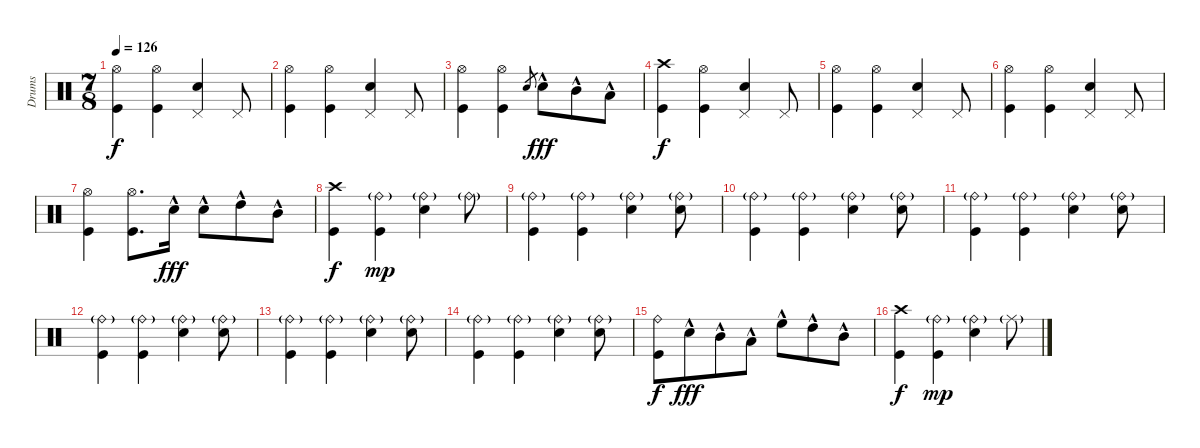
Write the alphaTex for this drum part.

\track ("Drums" "Drums") {instrument percussion}
\staff {score}
\articulation defaults
\ts (7 8)
\tempo 126
\clef neutral
\ks c
("Hi-Hat (open)" "Kick (hit)").4{dy f} ("Hi-Hat (open)" "Kick (hit)").4 ("Pedal Hi-Hat (hit)" "Snare (hit) 2").4 "Pedal Hi-Hat (hit)".8 |
("Hi-Hat (open)" "Kick (hit)").4 ("Hi-Hat (open)" "Kick (hit)").4 ("Pedal Hi-Hat (hit)" "Snare (hit) 2").4 "Pedal Hi-Hat (hit)".8 |
("Hi-Hat (open)" "Kick (hit)").4 ("Hi-Hat (open)" "Kick (hit)").4 "Snare (hit) 2".8{gr} "Snare (hit) 2"{hac}.8{dy fff} "Mid Tom (hit)"{hac}.8 "Low Tom (hit)"{hac}.8 |
("Crash high (hit)" "Kick (hit)").4{dy f} ("Hi-Hat (open)" "Kick (hit)").4 ("Pedal Hi-Hat (hit)" "Snare (hit) 2").4 "Pedal Hi-Hat (hit)".8 |
("Hi-Hat (open)" "Kick (hit)").4 ("Hi-Hat (open)" "Kick (hit)").4 ("Pedal Hi-Hat (hit)" "Snare (hit) 2").4 "Pedal Hi-Hat (hit)".8 |
("Hi-Hat (open)" "Kick (hit)").4 ("Hi-Hat (open)" "Kick (hit)").4 ("Pedal Hi-Hat (hit)" "Snare (hit) 2").4 "Pedal Hi-Hat (hit)".8 |
("Hi-Hat (open)" "Kick (hit)").4 ("Hi-Hat (open)" "Kick (hit)").8{d} "Snare (hit) 2"{hac}.16{dy fff} "Snare (hit) 2"{hac}.8 "High Tom (hit)"{hac}.8 "Mid Tom (hit)"{hac}.8 |
("Crash high (hit)" "Kick (hit)").4{dy f} ("Ride (bell)"{g} "Kick (hit)").4{dy mp} ("Ride (bell)"{g} "Snare (hit) 2").4 "Ride (bell)"{g}.8 |
("Ride (bell)"{g} "Kick (hit)").4 ("Ride (bell)"{g} "Kick (hit)").4 ("Ride (bell)"{g} "Snare (hit) 2").4 ("Ride (bell)"{g} "Snare (hit) 2").8 |
("Ride (bell)"{g} "Kick (hit)").4 ("Ride (bell)"{g} "Kick (hit)").4 ("Ride (bell)"{g} "Snare (hit) 2").4 ("Ride (bell)"{g} "Snare (hit) 2").8 |
("Ride (bell)"{g} "Kick (hit)").4 ("Ride (bell)"{g} "Kick (hit)").4 ("Ride (bell)"{g} "Snare (hit) 2").4 ("Ride (bell)"{g} "Snare (hit) 2").8 |
("Ride (bell)"{g} "Kick (hit)").4 ("Ride (bell)"{g} "Kick (hit)").4 ("Ride (bell)"{g} "Snare (hit) 2").4 ("Ride (bell)"{g} "Snare (hit) 2").8 |
("Ride (bell)"{g} "Kick (hit)").4 ("Ride (bell)"{g} "Kick (hit)").4 ("Ride (bell)"{g} "Snare (hit) 2").4 ("Ride (bell)"{g} "Snare (hit) 2").8 |
("Ride (bell)"{g} "Kick (hit)").4 ("Ride (bell)"{g} "Kick (hit)").4 ("Ride (bell)"{g} "Snare (hit) 2").4 ("Ride (bell)"{g} "Snare (hit) 2").8 |
("Ride (bell)" "Kick (hit)").8{dy f} "Snare (hit) 2"{hac}.8{dy fff} "Mid Tom (hit)"{hac}.8 "Low Tom (hit)"{hac}.8 "High Floor Tom (hit)"{hac}.8 "High Tom (hit)"{hac}.8 "Mid Tom (hit)"{hac}.8 |
("Crash high (hit)" "Kick (hit)").4{dy f} ("Ride (bell)"{g} "Kick (hit)").4{dy mp} ("Ride (bell)"{g} "Snare (hit) 2").4 "Ride (middle)"{g}.8
